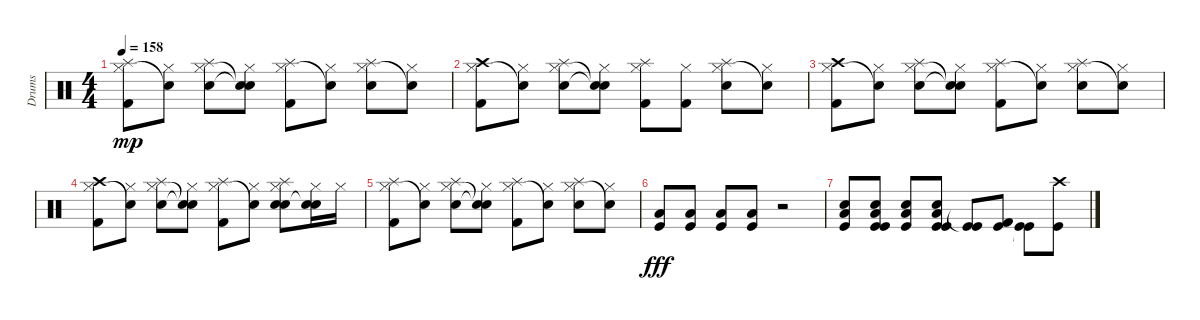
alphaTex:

\track ("Drums" "Drums") {instrument percussion}
\staff {score}
\articulation defaults
\ts (4 4)
\tempo 158
\clef neutral
\ks c
("Splash (hit)" "Hi-Hat (closed)" "Kick (hit) 2").8{dy mp} ("Hi-Hat (closed)" "Snare (hit)"{t}).8 ("Splash (hit)" "Hi-Hat (closed)" "Electric Snare (hit)").8 ("Hi-Hat (closed)" "Electric Snare (hit)"{t} "Snare (hit)"{t}).8 ("Splash (hit)" "Hi-Hat (closed)" "Kick (hit) 2").8 ("Hi-Hat (closed)" "Snare (hit)"{t}).8 ("Splash (hit)" "Hi-Hat (closed)" "Electric Snare (hit)").8 ("Hi-Hat (closed)" "Snare (hit)"{t}).8 |
("Crash high (hit)" "Hi-Hat (closed)" "Kick (hit) 2").8 ("Hi-Hat (closed)" "Snare (hit)"{t}).8 ("Splash (hit)" "Hi-Hat (closed)" "Electric Snare (hit)").8 ("Hi-Hat (closed)" "Electric Snare (hit)"{t} "Snare (hit)"{t}).8 ("Splash (hit)" "Hi-Hat (closed)" "Kick (hit) 2").8 ("Hi-Hat (closed)" "Kick (hit) 2").8 ("Splash (hit)" "Hi-Hat (closed)" "Electric Snare (hit)").8 ("Hi-Hat (closed)" "Snare (hit)"{t}).8 |
("Crash high (hit)" "Hi-Hat (closed)" "Kick (hit) 2").8 ("Hi-Hat (closed)" "Snare (hit)"{t}).8 ("Splash (hit)" "Hi-Hat (closed)" "Electric Snare (hit)").8 ("Hi-Hat (closed)" "Electric Snare (hit)"{t} "Snare (hit)"{t}).8 ("Splash (hit)" "Hi-Hat (closed)" "Kick (hit) 2").8 ("Hi-Hat (closed)" "Snare (hit)"{t}).8 ("Splash (hit)" "Hi-Hat (closed)" "Electric Snare (hit)").8 ("Hi-Hat (closed)" "Snare (hit)"{t}).8 |
("Crash high (hit)" "Hi-Hat (closed)" "Kick (hit) 2").8 ("Hi-Hat (closed)" "Snare (hit)"{t}).8 ("Splash (hit)" "Hi-Hat (closed)" "Electric Snare (hit)").8 ("Hi-Hat (closed)" "Electric Snare (hit)"{t} "Snare (hit)"{t}).8 ("Splash (hit)" "Hi-Hat (closed)" "Kick (hit) 2").8 ("Hi-Hat (closed)" "Snare (hit)"{t}).8 ("Splash (hit)" "Hi-Hat (closed)" "Electric Snare (hit)" "Electric Snare (hit)").8 ("Hi-Hat (closed)" "Electric Snare (hit)" "Snare (hit)"{t}).16 "Hi-Hat (closed)".16 |
("Splash (hit)" "Hi-Hat (closed)" "Kick (hit) 2").8 ("Hi-Hat (closed)" "Snare (hit)"{t}).8 ("Splash (hit)" "Hi-Hat (closed)" "Electric Snare (hit)").8 ("Hi-Hat (closed)" "Electric Snare (hit)"{t} "Snare (hit)"{t}).8 ("Splash (hit)" "Hi-Hat (closed)" "Kick (hit) 2").8 ("Hi-Hat (closed)" "Snare (hit)"{t}).8 ("Splash (hit)" "Hi-Hat (closed)" "Electric Snare (hit)").8 ("Hi-Hat (closed)" "Snare (hit)"{t}).8 |
("Low Floor Tom (hit)" "Kick (hit)").8{dy fff} ("Low Floor Tom (hit)" "Kick (hit)").8 ("Low Floor Tom (hit)" "Kick (hit)").8 ("Low Floor Tom (hit)" "Kick (hit)").8 r.2 |
("Low Floor Tom (hit)" "Electric Snare (hit)" "Kick (hit)").8 ("Low Floor Tom (hit)" "Electric Snare (hit)" "Kick (hit)" "Kick (hit)").8 ("Low Floor Tom (hit)" "Electric Snare (hit)" "Kick (hit)").8 ("Low Floor Tom (hit)" "Electric Snare (hit)" "Kick (hit)" "Kick (hit)").8 ("Kick (hit)" "Kick (hit)"{t}).8 ("Kick (hit) 2" "Kick (hit)").8 ("Kick (hit)" "Kick (hit)"{t}).8 ("Crash high (hit)" "Kick (hit)").8
